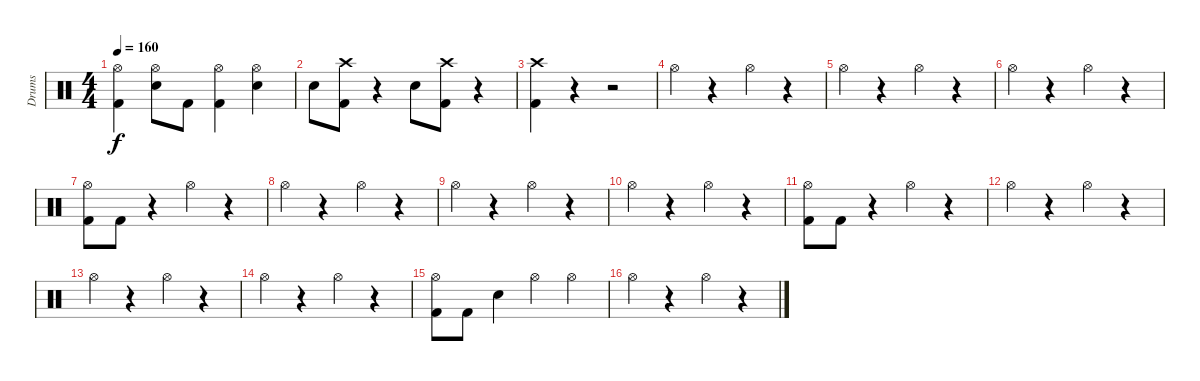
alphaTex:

\track ("Drums" "Drums") {instrument percussion}
\staff {score}
\articulation defaults
\ts (4 4)
\tempo 160
\clef neutral
\ks c
("Hi-Hat (open)" "Kick (hit) 2").4{dy f} ("Hi-Hat (open)" "Electric Snare (hit)").8 "Kick (hit) 2".8 ("Hi-Hat (open)" "Kick (hit) 2").4 ("Hi-Hat (open)" "Electric Snare (hit)").4 |
"Electric Snare (hit)".8 ("Crash high (hit)" "Kick (hit) 2").8 r.4 "Electric Snare (hit)".8 ("Crash high (hit)" "Kick (hit) 2").8 r.4 |
("Crash high (hit)" "Kick (hit) 2").4 r.4 r.2 |
"Hi-Hat (open)".4 r.4 "Hi-Hat (open)".4 r.4 |
"Hi-Hat (open)".4 r.4 "Hi-Hat (open)".4 r.4 |
"Hi-Hat (open)".4 r.4 "Hi-Hat (open)".4 r.4 |
("Hi-Hat (open)" "Kick (hit) 2").8 "Kick (hit) 2".8 r.4 "Hi-Hat (open)".4 r.4 |
"Hi-Hat (open)".4 r.4 "Hi-Hat (open)".4 r.4 |
"Hi-Hat (open)".4 r.4 "Hi-Hat (open)".4 r.4 |
"Hi-Hat (open)".4 r.4 "Hi-Hat (open)".4 r.4 |
("Hi-Hat (open)" "Kick (hit) 2").8 "Kick (hit) 2".8 r.4 "Hi-Hat (open)".4 r.4 |
"Hi-Hat (open)".4 r.4 "Hi-Hat (open)".4 r.4 |
"Hi-Hat (open)".4 r.4 "Hi-Hat (open)".4 r.4 |
"Hi-Hat (open)".4 r.4 "Hi-Hat (open)".4 r.4 |
("Hi-Hat (open)" "Kick (hit) 2").8 "Kick (hit) 2".8 "Electric Snare (hit)".4 "Hi-Hat (open)".4 "Hi-Hat (open)".4 |
"Hi-Hat (open)".4 r.4 "Hi-Hat (open)".4 r.4
